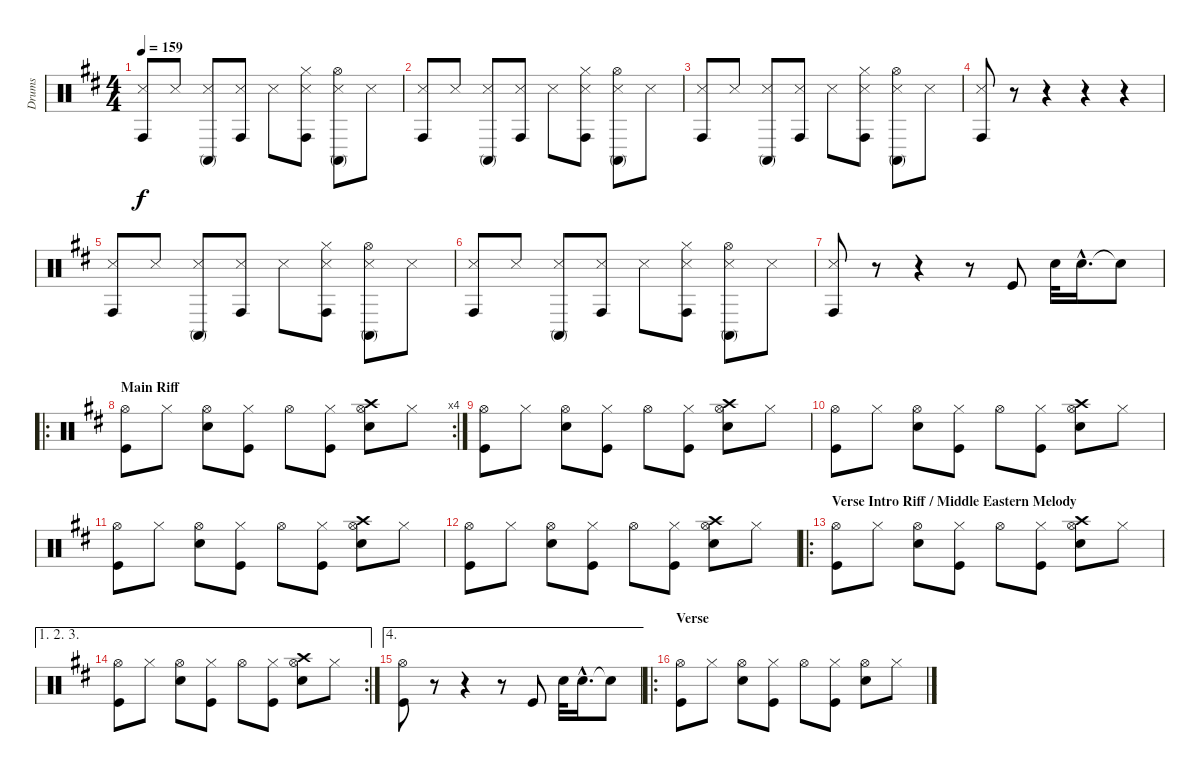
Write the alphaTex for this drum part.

\track ("Drums" "Drums") {instrument percussion}
\staff {score}
\articulation defaults
\ts (4 4)
\tempo 159
\clef neutral
\ks d
("Snare (side stick) 3" "Conga high (hit)").8{dy f} "Snare (side stick) 3".8 ("Snare (side stick) 3" "Conga high (mute)").8 ("Snare (side stick) 3" "Conga high (hit)").8 "Snare (side stick) 3".8 ("Snare (side stick) 3" "Conga high (hit)" "Hi-Hat (closed)").8 ("Snare (side stick) 3" "Conga high (mute)" "Hi-Hat (open)").8 "Snare (side stick) 3".8 |
("Snare (side stick) 3" "Conga high (hit)").8 "Snare (side stick) 3".8 ("Snare (side stick) 3" "Conga high (mute)").8 ("Snare (side stick) 3" "Conga high (hit)").8 "Snare (side stick) 3".8 ("Snare (side stick) 3" "Conga high (hit)" "Hi-Hat (closed)").8 ("Snare (side stick) 3" "Conga high (mute)" "Hi-Hat (open)").8 "Snare (side stick) 3".8 |
("Snare (side stick) 3" "Conga high (hit)").8 "Snare (side stick) 3".8 ("Snare (side stick) 3" "Conga high (mute)").8 ("Snare (side stick) 3" "Conga high (hit)").8 "Snare (side stick) 3".8 ("Snare (side stick) 3" "Conga high (hit)" "Hi-Hat (closed)").8 ("Snare (side stick) 3" "Conga high (mute)" "Hi-Hat (open)").8 "Snare (side stick) 3".8 |
("Snare (side stick) 3" "Conga high (hit)").8 r.8 r.4 r.4 r.4 |
("Snare (side stick) 3" "Conga high (hit)").8 "Snare (side stick) 3".8 ("Snare (side stick) 3" "Conga high (mute)").8 ("Snare (side stick) 3" "Conga high (hit)").8 "Snare (side stick) 3".8 ("Snare (side stick) 3" "Conga high (hit)" "Hi-Hat (closed)").8 ("Snare (side stick) 3" "Conga high (mute)" "Hi-Hat (open)").8 "Snare (side stick) 3".8 |
("Snare (side stick) 3" "Conga high (hit)").8 "Snare (side stick) 3".8 ("Snare (side stick) 3" "Conga high (mute)").8 ("Snare (side stick) 3" "Conga high (hit)").8 "Snare (side stick) 3".8 ("Snare (side stick) 3" "Conga high (hit)" "Hi-Hat (closed)").8 ("Snare (side stick) 3" "Conga high (mute)" "Hi-Hat (open)").8 "Snare (side stick) 3".8 |
("Snare (side stick) 3" "Conga high (hit)").8 r.8 r.4 r.8 "Kick (hit)".8 "Snare (hit) 2".32 "Snare (hit) 2"{hac}.16{d} "Snare (hit)"{t}.8 |
\ro
\rc 4
\section ("" "Main Riff")
("Hi-Hat (open)" "Kick (hit)").8 "Hi-Hat (closed)".8 ("Hi-Hat (open)" "Snare (hit) 2").8 ("Hi-Hat (closed)" "Kick (hit)").8 "Hi-Hat (open)".8 ("Hi-Hat (closed)" "Kick (hit)").8 ("Hi-Hat (open)" "Snare (hit) 2" "Crash high (hit)").8 "Hi-Hat (closed)".8 |
("Hi-Hat (open)" "Kick (hit)").8 "Hi-Hat (closed)".8 ("Hi-Hat (open)" "Snare (hit) 2").8 ("Hi-Hat (closed)" "Kick (hit)").8 "Hi-Hat (open)".8 ("Hi-Hat (closed)" "Kick (hit)").8 ("Hi-Hat (open)" "Snare (hit) 2" "Crash high (hit)").8 "Hi-Hat (closed)".8 |
("Hi-Hat (open)" "Kick (hit)").8 "Hi-Hat (closed)".8 ("Hi-Hat (open)" "Snare (hit) 2").8 ("Hi-Hat (closed)" "Kick (hit)").8 "Hi-Hat (open)".8 ("Hi-Hat (closed)" "Kick (hit)").8 ("Hi-Hat (open)" "Snare (hit) 2" "Crash high (hit)").8 "Hi-Hat (closed)".8 |
("Hi-Hat (open)" "Kick (hit)").8 "Hi-Hat (closed)".8 ("Hi-Hat (open)" "Snare (hit) 2").8 ("Hi-Hat (closed)" "Kick (hit)").8 "Hi-Hat (open)".8 ("Hi-Hat (closed)" "Kick (hit)").8 ("Hi-Hat (open)" "Snare (hit) 2" "Crash high (hit)").8 "Hi-Hat (closed)".8 |
("Hi-Hat (open)" "Kick (hit)").8 "Hi-Hat (closed)".8 ("Hi-Hat (open)" "Snare (hit) 2").8 ("Hi-Hat (closed)" "Kick (hit)").8 "Hi-Hat (open)".8 ("Hi-Hat (closed)" "Kick (hit)").8 ("Hi-Hat (open)" "Snare (hit) 2" "Crash high (hit)").8 "Hi-Hat (closed)".8 |
\ro
\section ("" "Verse Intro Riff / Middle Eastern Melody")
("Hi-Hat (open)" "Kick (hit)").8 "Hi-Hat (closed)".8 ("Hi-Hat (open)" "Snare (hit) 2").8 ("Hi-Hat (closed)" "Kick (hit)").8 "Hi-Hat (open)".8 ("Hi-Hat (closed)" "Kick (hit)").8 ("Hi-Hat (open)" "Snare (hit) 2" "Crash high (hit)").8 "Hi-Hat (closed)".8 |
\ae (1 2 3)
\rc 2
("Hi-Hat (open)" "Kick (hit)").8 "Hi-Hat (closed)".8 ("Hi-Hat (open)" "Snare (hit) 2").8 ("Hi-Hat (closed)" "Kick (hit)").8 "Hi-Hat (open)".8 ("Hi-Hat (closed)" "Kick (hit)").8 ("Hi-Hat (open)" "Snare (hit) 2" "Crash high (hit)").8 "Hi-Hat (closed)".8 |
\ae 4
("Hi-Hat (open)" "Kick (hit)").8 r.8 r.4 r.8 "Kick (hit)".8 "Snare (hit) 2".32 "Snare (hit) 2"{hac}.16{d} "Snare (hit)"{t}.8 |
\ro
\section ("" "Verse")
("Hi-Hat (open)" "Kick (hit)").8 "Hi-Hat (closed)".8 ("Hi-Hat (open)" "Snare (hit) 2").8 ("Hi-Hat (closed)" "Kick (hit)").8 "Hi-Hat (open)".8 ("Hi-Hat (closed)" "Kick (hit)").8 ("Hi-Hat (open)" "Snare (hit) 2").8 "Hi-Hat (closed)".8
